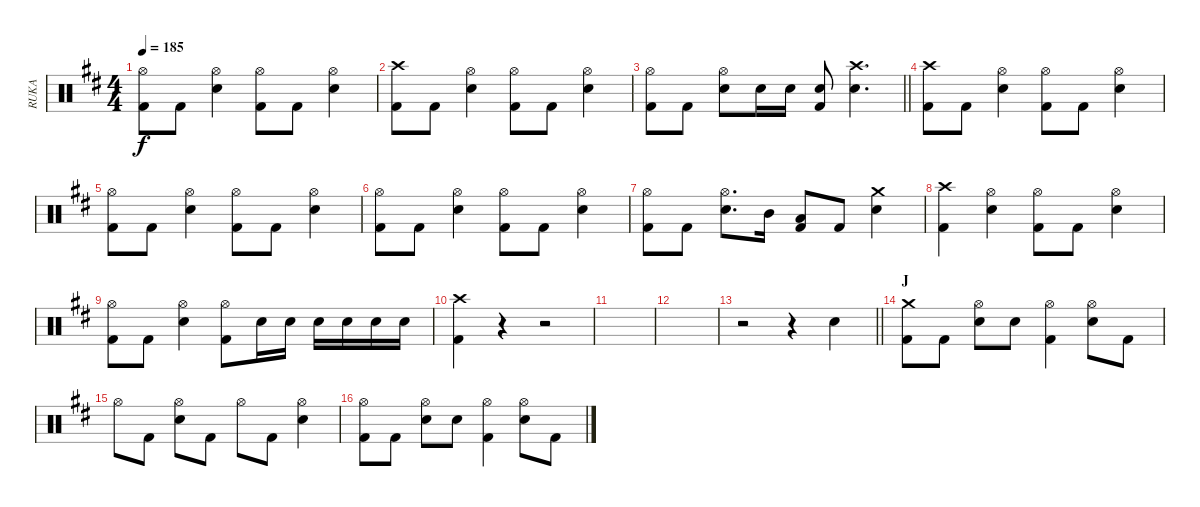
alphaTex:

\track ("RUKA" "RUKA") {instrument percussion}
\staff {score}
\articulation defaults
\ts (4 4)
\tempo 185
\clef neutral
\ks d
("Hi-Hat (open)" "Kick (hit) 2").8{dy f} "Kick (hit) 2".8 ("Hi-Hat (open)" "Snare (hit) 2").4 ("Hi-Hat (open)" "Kick (hit) 2").8 "Kick (hit) 2".8 ("Hi-Hat (open)" "Snare (hit) 2").4 |
("Crash high (hit)" "Kick (hit) 2").8 "Kick (hit) 2".8 ("Hi-Hat (open)" "Snare (hit) 2").4 ("Hi-Hat (open)" "Kick (hit) 2").8 "Kick (hit) 2".8 ("Hi-Hat (open)" "Snare (hit) 2").4 |
\barLineRight lightlight
("Hi-Hat (open)" "Kick (hit) 2").8 "Kick (hit) 2".8 ("Hi-Hat (open)" "Snare (hit) 2").8 "Snare (hit) 2".16 "Snare (hit) 2".16 ("Snare (hit) 2" "Kick (hit) 2").8 ("Crash high (hit)" "Snare (hit) 2").4{d} |
("Crash high (hit)" "Kick (hit) 2").8 "Kick (hit) 2".8 ("Hi-Hat (open)" "Snare (hit) 2").4 ("Hi-Hat (open)" "Kick (hit) 2").8 "Kick (hit) 2".8 ("Hi-Hat (open)" "Snare (hit) 2").4 |
("Hi-Hat (open)" "Kick (hit) 2").8 "Kick (hit) 2".8 ("Hi-Hat (open)" "Snare (hit) 2").4 ("Hi-Hat (open)" "Kick (hit) 2").8 "Kick (hit) 2".8 ("Hi-Hat (open)" "Snare (hit) 2").4 |
("Hi-Hat (open)" "Kick (hit) 2").8 "Kick (hit) 2".8 ("Hi-Hat (open)" "Snare (hit) 2").4 ("Hi-Hat (open)" "Kick (hit) 2").8 "Kick (hit) 2".8 ("Hi-Hat (open)" "Snare (hit) 2").4 |
("Hi-Hat (open)" "Kick (hit) 2").8 "Kick (hit) 2".8 ("Hi-Hat (open)" "Snare (hit) 2").8{d} "Mid Tom (hit)".16 ("Low Tom (hit)" "Kick (hit) 2").8 "Kick (hit) 2".8 ("Crash medium (hit)" "Snare (hit) 2").4 |
("Crash high (hit)" "Kick (hit) 2").4 ("Hi-Hat (open)" "Snare (hit) 2").4 ("Hi-Hat (open)" "Kick (hit) 2").8 "Kick (hit) 2".8 ("Hi-Hat (open)" "Snare (hit) 2").4 |
("Hi-Hat (open)" "Kick (hit) 2").8 "Kick (hit) 2".8 ("Hi-Hat (open)" "Snare (hit) 2").4 ("Hi-Hat (open)" "Kick (hit) 2").8 "Snare (hit) 2".16 "Snare (hit) 2".16 "Snare (hit) 2".16 "Snare (hit) 2".16 "Snare (hit) 2".16 "Snare (hit) 2".16 |
("Crash high (hit)" "Kick (hit) 2").4 r.4 r.2 |
|
|
\barLineRight lightlight
r.2 r.4 "Snare (hit) 2".4 |
\section ("" "J")
("Crash medium (hit)" "Kick (hit) 2").8 "Kick (hit) 2".8 ("Hi-Hat (open)" "Snare (hit) 2").8 "Snare (hit) 2".8 ("Hi-Hat (open)" "Kick (hit) 2").4 ("Hi-Hat (open)" "Snare (hit) 2").8 "Kick (hit) 2".8 |
"Hi-Hat (open)".8 "Kick (hit) 2".8 ("Hi-Hat (open)" "Snare (hit) 2").8 "Kick (hit) 2".8 "Hi-Hat (open)".8 "Kick (hit) 2".8 ("Hi-Hat (open)" "Snare (hit) 2").4 |
("Hi-Hat (open)" "Kick (hit) 2").8 "Kick (hit) 2".8 ("Hi-Hat (open)" "Snare (hit) 2").8 "Snare (hit) 2".8 ("Hi-Hat (open)" "Kick (hit) 2").4 ("Hi-Hat (open)" "Snare (hit) 2").8 "Kick (hit) 2".8
